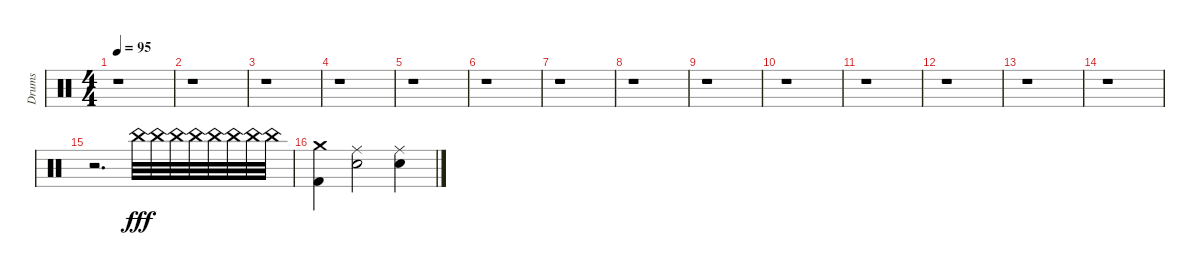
\track ("Drums" "Drums") {instrument percussion}
\staff {score}
\articulation defaults
\ts (4 4)
\tempo 95
\clef neutral
\ks c
r.1{dy f} |
r.1 |
r.1 |
r.1 |
r.1 |
r.1 |
r.1 |
r.1 |
r.1 |
r.1 |
r.1 |
r.1 |
r.1 |
r.1 |
r.2{d} "China (hit)".32{dy fff} "China (hit)".32 "China (hit)".32 "China (hit)".32 "China (hit)".32 "China (hit)".32 "China (hit)".32 "China (hit)".32 |
("Crash medium (hit)" "Kick (hit) 2").4 ("Ride (middle)" "Snare (hit) 2").2 ("Ride (middle)" "Snare (hit) 2").4
